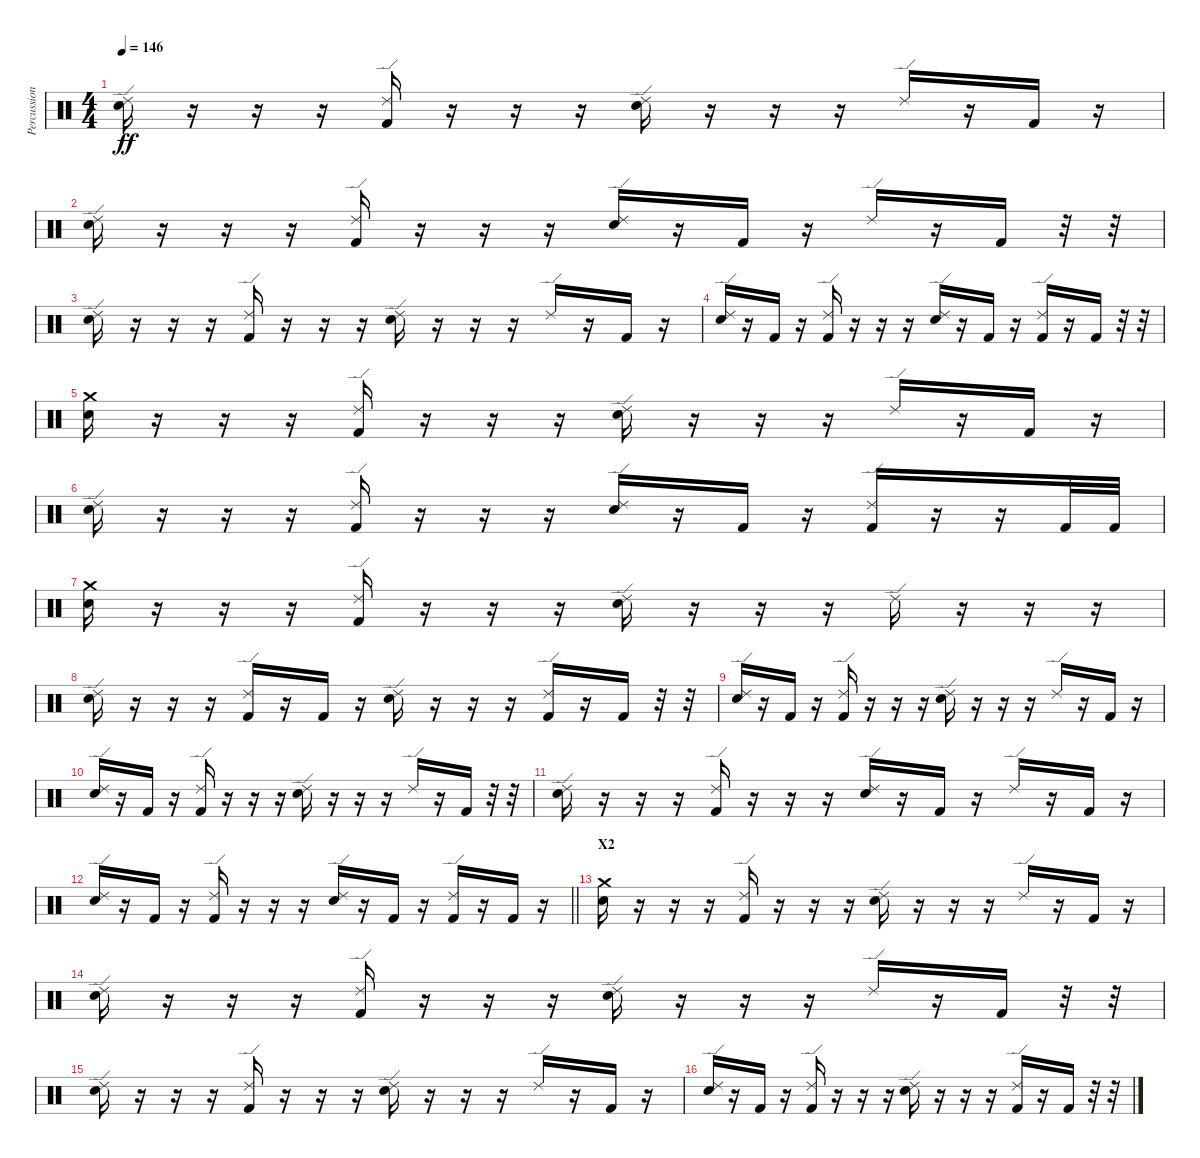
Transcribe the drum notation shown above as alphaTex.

\track ("Percussion" "Percussion") {instrument percussion}
\staff {score}
\articulation defaults
\ts (4 4)
\tempo 146
\clef neutral
\ks c
("Ride (edge) 2" "Electric Snare (hit)").16{dy ff} r.16 r.16 r.16 ("Ride (edge) 2" "Kick (hit) 2").16 r.16 r.16 r.16 ("Ride (edge) 2" "Electric Snare (hit)").16 r.16 r.16 r.16 "Ride (edge) 2".16 r.16 "Kick (hit) 2".16 r.16 |
("Ride (edge) 2" "Electric Snare (hit)").16 r.16 r.16 r.16 ("Ride (edge) 2" "Kick (hit) 2").16 r.16 r.16 r.16 ("Ride (edge) 2" "Electric Snare (hit)").16 r.16 "Kick (hit) 2".16 r.16 "Ride (edge) 2".16 r.16 "Kick (hit) 2".16 r.32 r.32 |
("Ride (edge) 2" "Electric Snare (hit)").16 r.16 r.16 r.16 ("Ride (edge) 2" "Kick (hit) 2").16 r.16 r.16 r.16 ("Ride (edge) 2" "Electric Snare (hit)").16 r.16 r.16 r.16 "Ride (edge) 2".16 r.16 "Kick (hit) 2".16 r.16 |
("Ride (edge) 2" "Electric Snare (hit)").16 r.16 "Kick (hit) 2".16 r.16 ("Ride (edge) 2" "Kick (hit) 2").16 r.16 r.16 r.16 ("Ride (edge) 2" "Electric Snare (hit)").16 r.16 "Kick (hit) 2".16 r.16 ("Ride (edge) 2" "Kick (hit) 2").16 r.16 "Kick (hit) 2".16 r.32 r.32 |
("Crash medium (hit)" "Electric Snare (hit)").16 r.16 r.16 r.16 ("Ride (edge) 2" "Kick (hit) 2").16 r.16 r.16 r.16 ("Ride (edge) 2" "Electric Snare (hit)").16 r.16 r.16 r.16 "Ride (edge) 2".16 r.16 "Kick (hit) 2".16 r.16 |
("Ride (edge) 2" "Electric Snare (hit)").16 r.16 r.16 r.16 ("Ride (edge) 2" "Kick (hit) 2").16 r.16 r.16 r.16 ("Ride (edge) 2" "Electric Snare (hit)").16 r.16 "Kick (hit) 2".16 r.16 ("Ride (edge) 2" "Kick (hit) 2").16 r.16 r.16 "Kick (hit) 2".32 "Kick (hit) 2".32 |
("Crash medium (hit)" "Electric Snare (hit)").16 r.16 r.16 r.16 ("Ride (edge) 2" "Kick (hit) 2").16 r.16 r.16 r.16 ("Ride (edge) 2" "Electric Snare (hit)").16 r.16 r.16 r.16 "Ride (edge) 2".16 r.16 r.16 r.16 |
("Ride (edge) 2" "Electric Snare (hit)").16 r.16 r.16 r.16 ("Ride (edge) 2" "Kick (hit) 2").16 r.16 "Kick (hit) 2".16 r.16 ("Ride (edge) 2" "Electric Snare (hit)").16 r.16 r.16 r.16 ("Ride (edge) 2" "Kick (hit) 2").16 r.16 "Kick (hit) 2".16 r.32 r.32 |
("Ride (edge) 2" "Electric Snare (hit)").16 r.16 "Kick (hit) 2".16 r.16 ("Ride (edge) 2" "Kick (hit) 2").16 r.16 r.16 r.16 ("Ride (edge) 2" "Electric Snare (hit)").16 r.16 r.16 r.16 "Ride (edge) 2".16 r.16 "Kick (hit) 2".16 r.16 |
("Ride (edge) 2" "Electric Snare (hit)").16 r.16 "Kick (hit) 2".16 r.16 ("Ride (edge) 2" "Kick (hit) 2").16 r.16 r.16 r.16 ("Ride (edge) 2" "Electric Snare (hit)").16 r.16 r.16 r.16 "Ride (edge) 2".16 r.16 "Kick (hit) 2".16 r.32 r.32 |
("Ride (edge) 2" "Electric Snare (hit)").16 r.16 r.16 r.16 ("Ride (edge) 2" "Kick (hit) 2").16 r.16 r.16 r.16 ("Ride (edge) 2" "Electric Snare (hit)").16 r.16 "Kick (hit) 2".16 r.16 "Ride (edge) 2".16 r.16 "Kick (hit) 2".16 r.16 |
\barLineRight lightlight
("Ride (edge) 2" "Electric Snare (hit)").16 r.16 "Kick (hit) 2".16 r.16 ("Ride (edge) 2" "Kick (hit) 2").16 r.16 r.16 r.16 ("Ride (edge) 2" "Electric Snare (hit)").16 r.16 "Kick (hit) 2".16 r.16 ("Ride (edge) 2" "Kick (hit) 2").16 r.16 "Kick (hit) 2".16 r.16 |
\section ("" "X2")
("Crash medium (hit)" "Electric Snare (hit)").16 r.16 r.16 r.16 ("Ride (edge) 2" "Kick (hit) 2").16 r.16 r.16 r.16 ("Ride (edge) 2" "Electric Snare (hit)").16 r.16 r.16 r.16 "Ride (edge) 2".16 r.16 "Kick (hit) 2".16 r.16 |
("Ride (edge) 2" "Electric Snare (hit)").16 r.16 r.16 r.16 ("Ride (edge) 2" "Kick (hit) 2").16 r.16 r.16 r.16 ("Ride (edge) 2" "Electric Snare (hit)").16 r.16 r.16 r.16 "Ride (edge) 2".16 r.16 "Kick (hit) 2".16 r.32 r.32 |
("Ride (edge) 2" "Electric Snare (hit)").16 r.16 r.16 r.16 ("Ride (edge) 2" "Kick (hit) 2").16 r.16 r.16 r.16 ("Ride (edge) 2" "Electric Snare (hit)").16 r.16 r.16 r.16 "Ride (edge) 2".16 r.16 "Kick (hit) 2".16 r.16 |
("Ride (edge) 2" "Electric Snare (hit)").16 r.16 "Kick (hit) 2".16 r.16 ("Ride (edge) 2" "Kick (hit) 2").16 r.16 r.16 r.16 ("Ride (edge) 2" "Electric Snare (hit)").16 r.16 r.16 r.16 ("Ride (edge) 2" "Kick (hit) 2").16 r.16 "Kick (hit) 2".16 r.32 r.32
